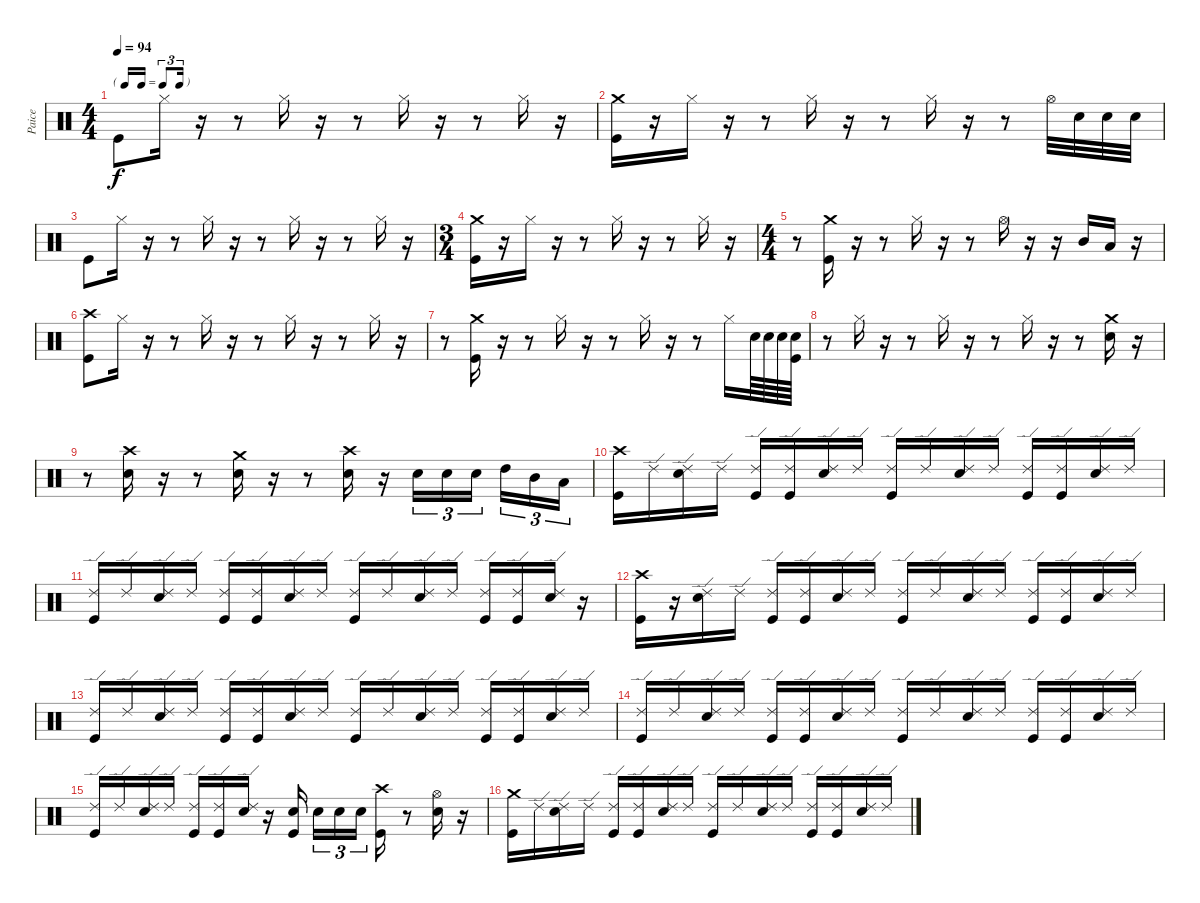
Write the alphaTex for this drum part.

\track ("Paice" "Paice") {instrument percussion}
\staff {score}
\articulation defaults
\ts (4 4)
\tf triplet16th
\tempo 94
\clef neutral
\ks c "Kick (hit)".8{dy f} "Hi-Hat (closed)".16
r.16 r.8 "Hi-Hat (closed)".16 r.16 r.8 "Hi-Hat (closed)".16 r.16 r.8 "Hi-Hat (closed)".16 r.16 |
("Crash medium (hit)" "Kick (hit)").16 r.16 "Hi-Hat (closed)".16 r.16 r.8 "Hi-Hat (closed)".16 r.16 r.8 "Hi-Hat (closed)".16 r.16 r.8 "Hi-Hat (open)".32 "Snare (hit) 2".32 "Snare (hit) 2".32 "Snare (hit) 2".32 |
"Kick (hit)".8 "Hi-Hat (closed)".16 r.16 r.8 "Hi-Hat (closed)".16 r.16 r.8 "Hi-Hat (closed)".16 r.16 r.8 "Hi-Hat (closed)".16 r.16 |
\ts (3 4)
("Crash medium (hit)" "Kick (hit)").16 r.16 "Hi-Hat (closed)".16 r.16 r.8 "Hi-Hat (closed)".16 r.16 r.8 "Hi-Hat (closed)".16 r.16 |
\ts (4 4)
r.8 ("Crash medium (hit)" "Kick (hit)").16 r.16 r.8 "Hi-Hat (closed)".16 r.16 r.8 "Hi-Hat (open)".16 r.16 r.16 "Mid Tom (hit)".16 "Low Tom (hit)".16 r.16 |
("Crash high (hit)" "Kick (hit)").8 "Hi-Hat (closed)".16 r.16 r.8 "Hi-Hat (closed)".16 r.16 r.8 "Hi-Hat (closed)".16 r.16 r.8 "Hi-Hat (closed)".16 r.16 |
r.8 ("Crash medium (hit)" "Kick (hit)").16 r.16 r.8 "Hi-Hat (closed)".16 r.16 r.8 "Hi-Hat (closed)".16 r.16 r.8 "Hi-Hat (closed)".16 "Snare (hit) 2".64 "Snare (hit) 2".64 "Snare (hit) 2".64 ("Snare (hit) 2" "Kick (hit)").64 |
r.8 "Hi-Hat (closed)".16 r.16 r.8 "Hi-Hat (closed)".16 r.16 r.8 "Hi-Hat (closed)".16 r.16 r.8 ("Crash medium (hit)" "Snare (hit) 2").16 r.16 |
r.8 ("Crash high (hit)" "Snare (hit) 2").16 r.16 r.8 ("Crash medium (hit)" "Snare (hit) 2").16 r.16 r.8 ("Crash high (hit)" "Snare (hit) 2").16 r.16 "Snare (hit) 2".16{tu (3 2)} "Snare (hit) 2".16{tu (3 2)} "Snare (hit) 2".16{tu (3 2) beam splitsecondary} "High Tom (hit)".16{tu (3 2)} "Mid Tom (hit)".16{tu (3 2)} "Low Tom (hit)".16{tu (3 2)} |
("Crash high (hit)" "Kick (hit)").16 "Ride (edge) 2".16 ("Ride (edge) 2" "Snare (hit) 2").16 "Ride (edge) 2".16 ("Ride (edge) 2" "Kick (hit)").16 ("Ride (edge) 2" "Kick (hit)").16 ("Ride (edge) 2" "Snare (hit) 2").16 "Ride (edge) 2".16 ("Ride (edge) 2" "Kick (hit)").16 "Ride (edge) 2".16 ("Ride (edge) 2" "Snare (hit) 2").16 "Ride (edge) 2".16 ("Ride (edge) 2" "Kick (hit)").16 ("Ride (edge) 2" "Kick (hit)").16 ("Ride (edge) 2" "Snare (hit) 2").16 "Ride (edge) 2".16 |
("Ride (edge) 2" "Kick (hit)").16 "Ride (edge) 2".16 ("Ride (edge) 2" "Snare (hit) 2").16 "Ride (edge) 2".16 ("Ride (edge) 2" "Kick (hit)").16 ("Ride (edge) 2" "Kick (hit)").16 ("Ride (edge) 2" "Snare (hit) 2").16 "Ride (edge) 2".16 ("Ride (edge) 2" "Kick (hit)").16 "Ride (edge) 2".16 ("Ride (edge) 2" "Snare (hit) 2").16 "Ride (edge) 2".16 ("Ride (edge) 2" "Kick (hit)").16 ("Ride (edge) 2" "Kick (hit)").16 ("Ride (edge) 2" "Snare (hit) 2").16 r.16 |
("Crash high (hit)" "Kick (hit)").16 r.16 ("Ride (edge) 2" "Snare (hit) 2").16 "Ride (edge) 2".16 ("Ride (edge) 2" "Kick (hit)").16 ("Ride (edge) 2" "Kick (hit)").16 ("Ride (edge) 2" "Snare (hit) 2").16 "Ride (edge) 2".16 ("Ride (edge) 2" "Kick (hit)").16 "Ride (edge) 2".16 ("Ride (edge) 2" "Snare (hit) 2").16 "Ride (edge) 2".16 ("Ride (edge) 2" "Kick (hit)").16 ("Ride (edge) 2" "Kick (hit)").16 ("Ride (edge) 2" "Snare (hit) 2").16 "Ride (edge) 2".16 |
("Ride (edge) 2" "Kick (hit)").16 "Ride (edge) 2".16 ("Ride (edge) 2" "Snare (hit) 2").16 "Ride (edge) 2".16 ("Ride (edge) 2" "Kick (hit)").16 ("Ride (edge) 2" "Kick (hit)").16 ("Ride (edge) 2" "Snare (hit) 2").16 "Ride (edge) 2".16 ("Ride (edge) 2" "Kick (hit)").16 "Ride (edge) 2".16 ("Ride (edge) 2" "Snare (hit) 2").16 "Ride (edge) 2".16 ("Ride (edge) 2" "Kick (hit)").16 ("Ride (edge) 2" "Kick (hit)").16 ("Ride (edge) 2" "Snare (hit) 2").16 "Ride (edge) 2".16 |
("Ride (edge) 2" "Kick (hit)").16 "Ride (edge) 2".16 ("Ride (edge) 2" "Snare (hit) 2").16 "Ride (edge) 2".16 ("Ride (edge) 2" "Kick (hit)").16 ("Ride (edge) 2" "Kick (hit)").16 ("Ride (edge) 2" "Snare (hit) 2").16 "Ride (edge) 2".16 ("Ride (edge) 2" "Kick (hit)").16 "Ride (edge) 2".16 ("Ride (edge) 2" "Snare (hit) 2").16 "Ride (edge) 2".16 ("Ride (edge) 2" "Kick (hit)").16 ("Ride (edge) 2" "Kick (hit)").16 ("Ride (edge) 2" "Snare (hit) 2").16 "Ride (edge) 2".16 |
("Ride (edge) 2" "Kick (hit)").16 "Ride (edge) 2".16 ("Ride (edge) 2" "Snare (hit) 2").16 "Ride (edge) 2".16 ("Ride (edge) 2" "Kick (hit)").16 ("Ride (edge) 2" "Kick (hit)").16 ("Ride (edge) 2" "Snare (hit) 2").16 r.16 ("Snare (hit) 2" "Kick (hit)").16{beam splitsecondary} "Snare (hit) 2".16{tu (3 2)} "Snare (hit) 2".16{tu (3 2)} "Snare (hit) 2".16{tu (3 2) beam splitsecondary} ("Kick (hit)" "Crash high (hit)").16 r.8 ("Hi-Hat (open)" "Snare (hit) 2").16 r.16 |
("Crash medium (hit)" "Kick (hit)").16 "Ride (edge) 2".16 ("Ride (edge) 2" "Snare (hit) 2").16 "Ride (edge) 2".16 ("Ride (edge) 2" "Kick (hit)").16 ("Ride (edge) 2" "Kick (hit)").16 ("Ride (edge) 2" "Snare (hit) 2").16 "Ride (edge) 2".16 ("Ride (edge) 2" "Kick (hit)").16 "Ride (edge) 2".16 ("Ride (edge) 2" "Snare (hit) 2").16 "Ride (edge) 2".16 ("Ride (edge) 2" "Kick (hit)").16 ("Ride (edge) 2" "Kick (hit)").16 ("Ride (edge) 2" "Snare (hit) 2").16 "Ride (edge) 2".16
